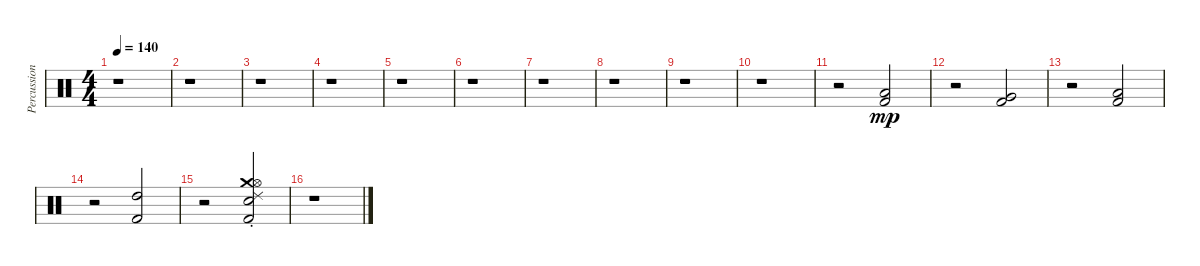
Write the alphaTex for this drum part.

\track ("Percussion" "Percussion") {instrument percussion}
\staff {score}
\articulation defaults
\ts (4 4)
\tempo 140
\clef neutral
\ks c
r.1{dy mp} |
r.1 |
r.1 |
r.1 |
r.1 |
r.1 |
r.1 |
r.1 |
r.1 |
r.1 |
r.2 ("Low Tom (hit)" "Kick (hit) 2").2 |
r.2 ("Very Low Tom (hit)" "Kick (hit) 2").2 |
r.2 ("Low Tom (hit)" "Kick (hit) 2").2 |
r.2 ("High Tom (hit)" "Kick (hit) 2").2 |
r.2 ("Ride (choke) 2" "Crash medium (hit)" "Hi-Hat (open)" "Snare (hit) 2" "Kick (hit) 2").2 |
r.1
